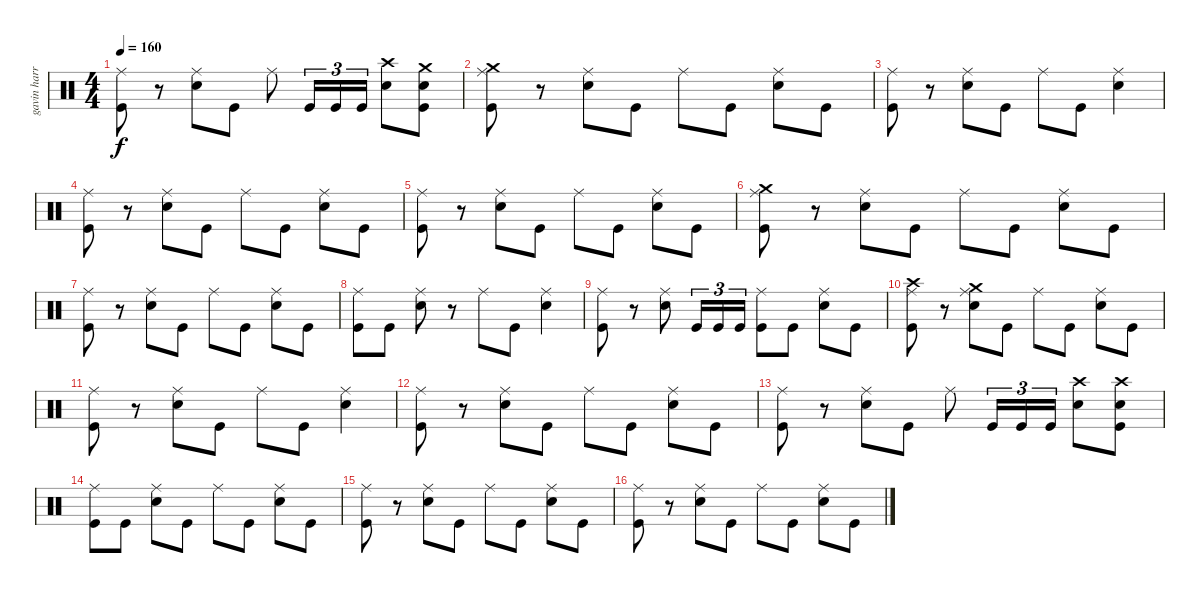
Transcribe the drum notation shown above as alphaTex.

\track ("gavin harrison ( drum ) " "gavin harr") {instrument percussion}
\staff {score}
\articulation defaults
\ts (4 4)
\tempo 160
\clef neutral
\ks c
("Ride (middle)" "Kick (hit)").8{dy f} r.8 ("Ride (middle)" "Snare (hit) 2").8 "Kick (hit)".8 "Ride (middle)".8 "Kick (hit)".16{tu (3 2)} "Kick (hit)".16{tu (3 2)} "Kick (hit)".16{tu (3 2)} ("Crash high (hit)" "Snare (hit) 2").8 ("Crash medium (hit)" "Snare (hit) 2" "Kick (hit)").8 |
("Ride (middle)" "Crash medium (hit)" "Kick (hit)").8 r.8 ("Ride (middle)" "Snare (hit) 2").8 "Kick (hit)".8 "Ride (middle)".8 "Kick (hit)".8 ("Ride (middle)" "Snare (hit) 2").8 "Kick (hit)".8 |
("Ride (middle)" "Kick (hit)").8 r.8 ("Ride (middle)" "Snare (hit) 2").8 "Kick (hit)".8 "Ride (middle)".8 "Kick (hit)".8 ("Ride (middle)" "Snare (hit) 2").4 |
("Ride (middle)" "Kick (hit)").8 r.8 ("Ride (middle)" "Snare (hit) 2").8 "Kick (hit)".8 "Ride (middle)".8 "Kick (hit)".8 ("Ride (middle)" "Snare (hit) 2").8 "Kick (hit)".8 |
("Ride (middle)" "Kick (hit)").8 r.8 ("Ride (middle)" "Snare (hit) 2").8 "Kick (hit)".8 "Ride (middle)".8 "Kick (hit)".8 ("Ride (middle)" "Snare (hit) 2").8 "Kick (hit)".8 |
("Ride (middle)" "Crash medium (hit)" "Kick (hit)").8 r.8 ("Ride (middle)" "Snare (hit) 2").8 "Kick (hit)".8 "Ride (middle)".8 "Kick (hit)".8 ("Ride (middle)" "Snare (hit) 2").8 "Kick (hit)".8 |
("Ride (middle)" "Kick (hit)").8 r.8 ("Ride (middle)" "Snare (hit) 2").8 "Kick (hit)".8 "Ride (middle)".8 "Kick (hit)".8 ("Ride (middle)" "Snare (hit) 2").8 "Kick (hit)".8 |
("Ride (middle)" "Kick (hit)").8 "Kick (hit)".8 ("Ride (middle)" "Snare (hit) 2").8 r.8 "Ride (middle)".8 "Kick (hit)".8 ("Ride (middle)" "Snare (hit) 2").4 |
("Ride (middle)" "Kick (hit)").8 r.8 ("Ride (middle)" "Snare (hit) 2").8 "Kick (hit)".16{tu (3 2)} "Kick (hit)".16{tu (3 2)} "Kick (hit)".16{tu (3 2)} ("Ride (middle)" "Kick (hit)").8 "Kick (hit)".8 ("Ride (middle)" "Snare (hit) 2").8 "Kick (hit)".8 |
("Ride (middle)" "Crash high (hit)" "Kick (hit)").8 r.8 ("Ride (middle)" "Crash medium (hit)" "Snare (hit) 2").8 "Kick (hit)".8 "Ride (middle)".8 "Kick (hit)".8 ("Ride (middle)" "Snare (hit) 2").8 "Kick (hit)".8 |
("Ride (middle)" "Kick (hit)").8 r.8 ("Ride (middle)" "Snare (hit) 2").8 "Kick (hit)".8 "Ride (middle)".8 "Kick (hit)".8 ("Ride (middle)" "Snare (hit) 2").4 |
("Ride (middle)" "Kick (hit)").8 r.8 ("Ride (middle)" "Snare (hit) 2").8 "Kick (hit)".8 "Ride (middle)".8 "Kick (hit)".8 ("Ride (middle)" "Snare (hit) 2").8 "Kick (hit)".8 |
("Ride (middle)" "Kick (hit)").8 r.8 ("Ride (middle)" "Snare (hit) 2").8 "Kick (hit)".8 "Ride (middle)".8 "Kick (hit)".16{tu (3 2)} "Kick (hit)".16{tu (3 2)} "Kick (hit)".16{tu (3 2)} ("Crash high (hit)" "Snare (hit) 2").8 ("Crash high (hit)" "Snare (hit) 2" "Kick (hit)").8 |
("Ride (middle)" "Kick (hit)").8 "Kick (hit)".8 ("Ride (middle)" "Snare (hit) 2").8 "Kick (hit)".8 "Ride (middle)".8 "Kick (hit)".8 ("Ride (middle)" "Snare (hit) 2").8 "Kick (hit)".8 |
("Ride (middle)" "Kick (hit)").8 r.8 ("Ride (middle)" "Snare (hit) 2").8 "Kick (hit)".8 "Ride (middle)".8 "Kick (hit)".8 ("Ride (middle)" "Snare (hit) 2").8 "Kick (hit)".8 |
("Ride (middle)" "Kick (hit)").8 r.8 ("Ride (middle)" "Snare (hit) 2").8 "Kick (hit)".8 "Ride (middle)".8 "Kick (hit)".8 ("Ride (middle)" "Snare (hit) 2").8 "Kick (hit)".8
